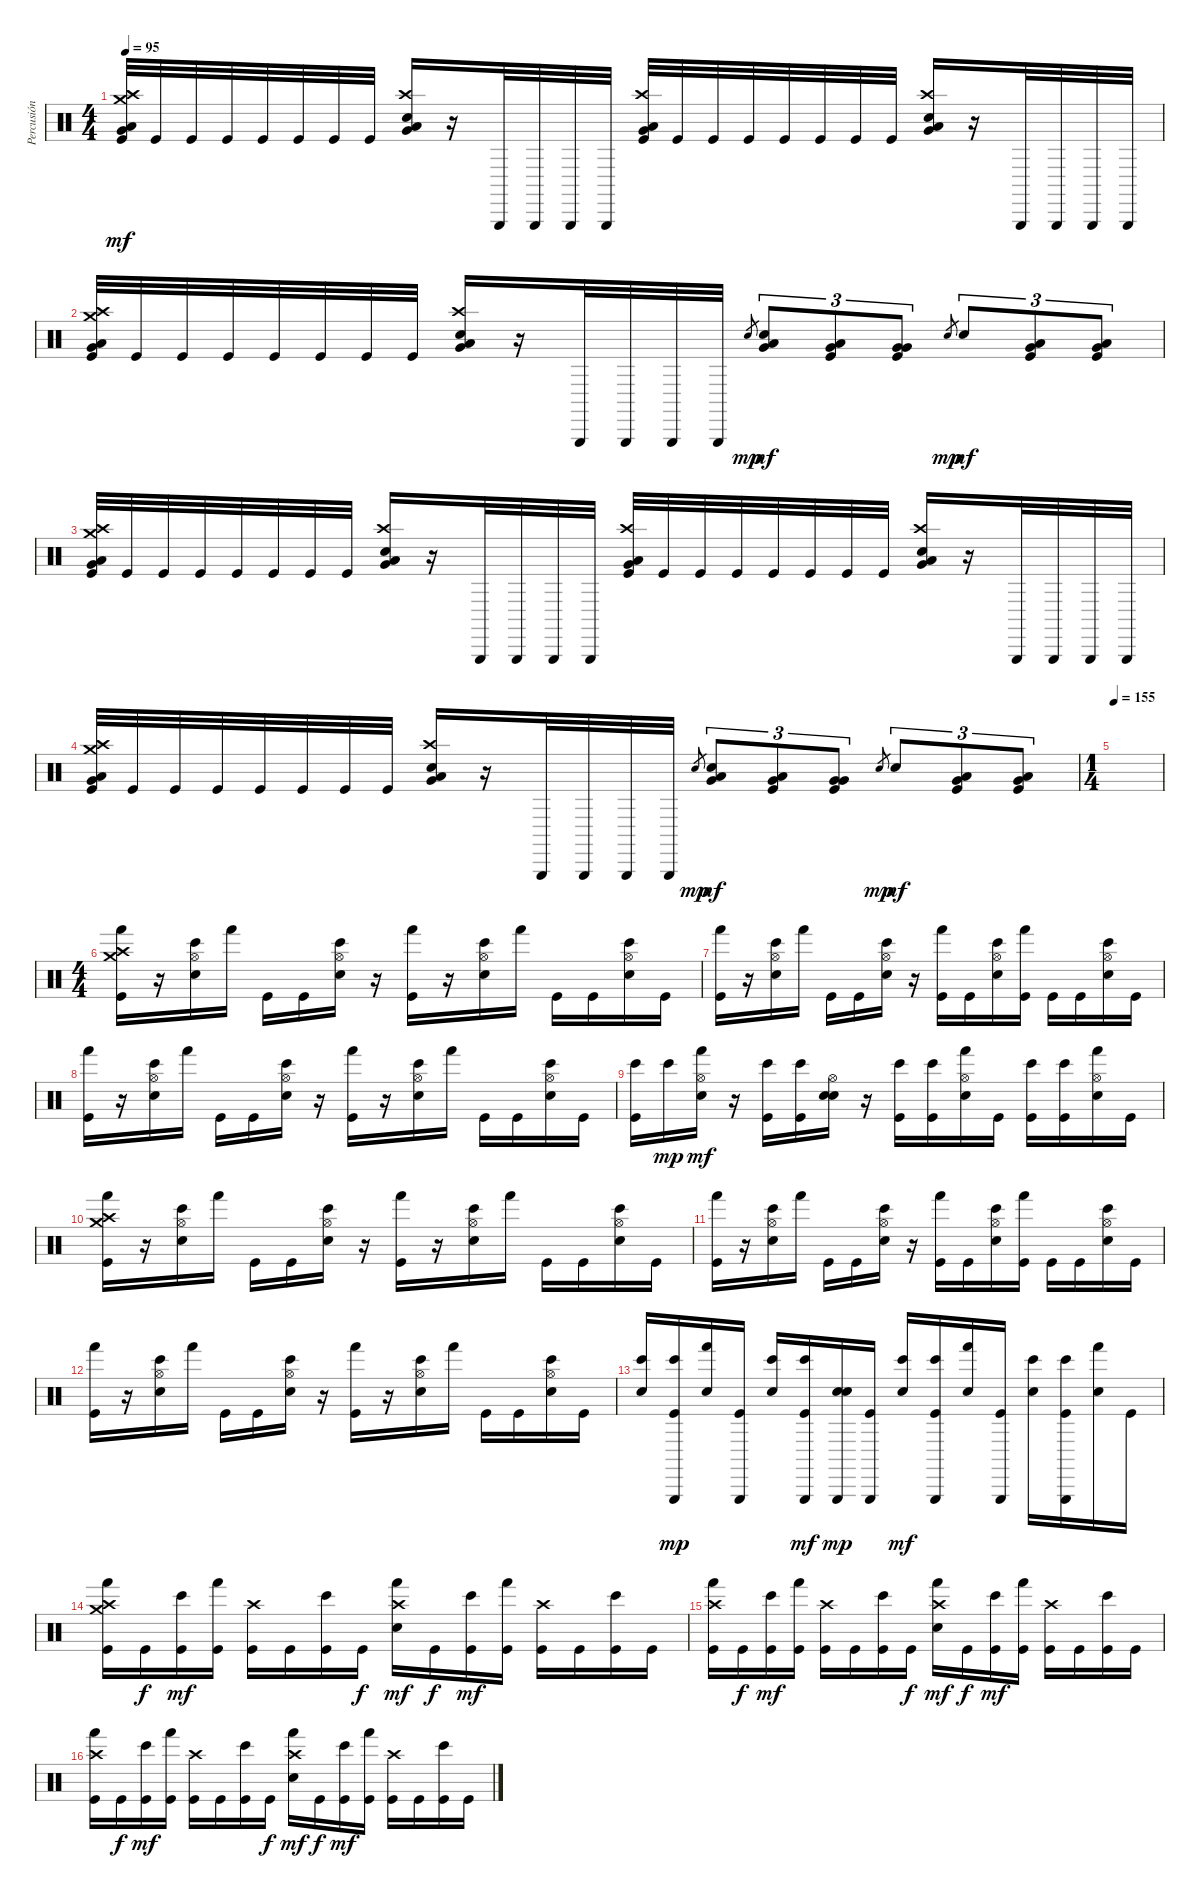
\track ("Percusión" "Percusión") {instrument percussion}
\staff {score}
\articulation defaults
\ts (4 4)
\tempo 95
\clef neutral
\ks c
("Low Floor Tom (hit)" "Very Low Tom (hit)" "Crash medium (hit)" "Crash high (hit)" "Kick (hit)").32{dy mf} "Kick (hit)".32 "Kick (hit)".32 "Kick (hit)".32 "Kick (hit)".32 "Kick (hit)".32 "Kick (hit)".32 "Kick (hit)".32 ("Low Floor Tom (hit)" "Very Low Tom (hit)" "Crash high (hit)" "Electric Snare (hit)").16 r.16 "Triangle (hit)".32 "Triangle (hit)".32 "Triangle (hit)".32 "Triangle (hit)".32 ("Low Floor Tom (hit)" "Very Low Tom (hit)" "Crash high (hit)" "Kick (hit)").32 "Kick (hit)".32 "Kick (hit)".32 "Kick (hit)".32 "Kick (hit)".32 "Kick (hit)".32 "Kick (hit)".32 "Kick (hit)".32 ("Low Floor Tom (hit)" "Very Low Tom (hit)" "Crash high (hit)" "Electric Snare (hit)").16 r.16 "Triangle (hit)".32 "Triangle (hit)".32 "Triangle (hit)".32 "Triangle (hit)".32 |
("Low Floor Tom (hit)" "Very Low Tom (hit)" "Crash medium (hit)" "Crash high (hit)" "Kick (hit)").32 "Kick (hit)".32 "Kick (hit)".32 "Kick (hit)".32 "Kick (hit)".32 "Kick (hit)".32 "Kick (hit)".32 "Kick (hit)".32 ("Low Floor Tom (hit)" "Very Low Tom (hit)" "Crash high (hit)" "Electric Snare (hit)").16 r.16 "Triangle (hit)".32 "Triangle (hit)".32 "Triangle (hit)".32 "Triangle (hit)".32 "Electric Snare (hit)".8{gr dy mp} ("Low Floor Tom (hit)" "Very Low Tom (hit)" "Electric Snare (hit)").8{tu (3 2) dy mf} ("Very Low Tom (hit)" "Low Tom (hit)" "Kick (hit)").8{tu (3 2)} ("Very Low Tom (hit)" "Very Low Tom (hit)" "Kick (hit)").8{tu (3 2)} "Electric Snare (hit)".8{gr dy mp} "Electric Snare (hit)".8{tu (3 2) dy mf} ("Low Floor Tom (hit)" "Very Low Tom (hit)" "Kick (hit)").8{tu (3 2)} ("Low Floor Tom (hit)" "Very Low Tom (hit)" "Kick (hit)").8{tu (3 2)} |
("Low Floor Tom (hit)" "Very Low Tom (hit)" "Crash medium (hit)" "Crash high (hit)" "Kick (hit)").32 "Kick (hit)".32 "Kick (hit)".32 "Kick (hit)".32 "Kick (hit)".32 "Kick (hit)".32 "Kick (hit)".32 "Kick (hit)".32 ("Low Floor Tom (hit)" "Very Low Tom (hit)" "Crash high (hit)" "Electric Snare (hit)").16 r.16 "Triangle (hit)".32 "Triangle (hit)".32 "Triangle (hit)".32 "Triangle (hit)".32 ("Low Floor Tom (hit)" "Very Low Tom (hit)" "Crash high (hit)" "Kick (hit)").32 "Kick (hit)".32 "Kick (hit)".32 "Kick (hit)".32 "Kick (hit)".32 "Kick (hit)".32 "Kick (hit)".32 "Kick (hit)".32 ("Low Floor Tom (hit)" "Very Low Tom (hit)" "Crash high (hit)" "Electric Snare (hit)").16 r.16 "Triangle (hit)".32 "Triangle (hit)".32 "Triangle (hit)".32 "Triangle (hit)".32 |
("Low Floor Tom (hit)" "Very Low Tom (hit)" "Crash medium (hit)" "Crash high (hit)" "Kick (hit)").32 "Kick (hit)".32 "Kick (hit)".32 "Kick (hit)".32 "Kick (hit)".32 "Kick (hit)".32 "Kick (hit)".32 "Kick (hit)".32 ("Low Floor Tom (hit)" "Very Low Tom (hit)" "Crash high (hit)" "Electric Snare (hit)").16 r.16 "Triangle (hit)".32 "Triangle (hit)".32 "Triangle (hit)".32 "Triangle (hit)".32 "Electric Snare (hit)".8{gr dy mp} ("Low Floor Tom (hit)" "Very Low Tom (hit)" "Electric Snare (hit)").8{tu (3 2) dy mf} ("Very Low Tom (hit)" "Low Tom (hit)" "Kick (hit)").8{tu (3 2)} ("Very Low Tom (hit)" "Very Low Tom (hit)" "Kick (hit)").8{tu (3 2)} "Electric Snare (hit)".8{gr dy mp} "Electric Snare (hit)".8{tu (3 2) dy mf} ("Low Floor Tom (hit)" "Very Low Tom (hit)" "Kick (hit)").8{tu (3 2)} ("Low Floor Tom (hit)" "Very Low Tom (hit)" "Kick (hit)").8{tu (3 2)} |
\ts (1 4)
\tempo 155
|
\ts (4 4)
("Hand (hit)" "Crash medium (hit)" "Crash high (hit)" "Kick (hit)").16 r.16 ("Bongo High (hit)" "Hi-Hat (open)" "Electric Snare (hit)").16 "Hand (hit)".16 "Kick (hit)".16 "Kick (hit)".16 ("Bongo High (hit)" "Hi-Hat (open)" "Electric Snare (hit)").16 r.16 ("Hand (hit)" "Kick (hit)").16 r.16 ("Bongo High (hit)" "Hi-Hat (open)" "Electric Snare (hit)").16 "Hand (hit)".16 "Kick (hit)".16 "Kick (hit)".16 ("Bongo High (hit)" "Hi-Hat (open)" "Electric Snare (hit)").16 "Kick (hit)".16 |
("Hand (hit)" "Kick (hit)").16 r.16 ("Bongo High (hit)" "Hi-Hat (open)" "Electric Snare (hit)").16 "Hand (hit)".16 "Kick (hit)".16 "Kick (hit)".16 ("Bongo High (hit)" "Hi-Hat (open)" "Electric Snare (hit)").16 r.16 ("Hand (hit)" "Kick (hit)").16 "Kick (hit)".16 ("Bongo High (hit)" "Hi-Hat (open)" "Electric Snare (hit)").16 ("Hand (hit)" "Kick (hit)").16 "Kick (hit)".16 "Kick (hit)".16 ("Bongo High (hit)" "Hi-Hat (open)" "Electric Snare (hit)").16 "Kick (hit)".16 |
("Hand (hit)" "Kick (hit)").16 r.16 ("Bongo High (hit)" "Hi-Hat (open)" "Electric Snare (hit)").16 "Hand (hit)".16 "Kick (hit)".16 "Kick (hit)".16 ("Bongo High (hit)" "Hi-Hat (open)" "Electric Snare (hit)").16 r.16 ("Hand (hit)" "Kick (hit)").16 r.16 ("Bongo High (hit)" "Hi-Hat (open)" "Electric Snare (hit)").16 "Hand (hit)".16 "Kick (hit)".16 "Kick (hit)".16 ("Bongo High (hit)" "Hi-Hat (open)" "Electric Snare (hit)").16 "Kick (hit)".16 |
("Bongo High (hit)" "Kick (hit)").16 "Bongo High (hit)".16{dy mp} ("Hand (hit)" "Hi-Hat (open)" "Electric Snare (hit)").16{dy mf} r.16 ("Bongo High (hit)" "Kick (hit)").16 ("Bongo High (hit)" "Kick (hit)").16 ("Snare (hit)" "Hi-Hat (open)" "Electric Snare (hit)").16 r.16 ("Bongo High (hit)" "Kick (hit)").16 ("Bongo High (hit)" "Kick (hit)").16 ("Hand (hit)" "Hi-Hat (open)" "Electric Snare (hit)").16 "Kick (hit)".16 ("Bongo High (hit)" "Kick (hit)").16 ("Bongo High (hit)" "Kick (hit)").16 ("Hand (hit)" "Hi-Hat (open)" "Electric Snare (hit)").16 "Kick (hit)".16 |
("Hand (hit)" "Crash medium (hit)" "Crash high (hit)" "Kick (hit)").16 r.16 ("Bongo High (hit)" "Hi-Hat (open)" "Electric Snare (hit)").16 "Hand (hit)".16 "Kick (hit)".16 "Kick (hit)".16 ("Bongo High (hit)" "Hi-Hat (open)" "Electric Snare (hit)").16 r.16 ("Hand (hit)" "Kick (hit)").16 r.16 ("Bongo High (hit)" "Hi-Hat (open)" "Electric Snare (hit)").16 "Hand (hit)".16 "Kick (hit)".16 "Kick (hit)".16 ("Bongo High (hit)" "Hi-Hat (open)" "Electric Snare (hit)").16 "Kick (hit)".16 |
("Hand (hit)" "Kick (hit)").16 r.16 ("Bongo High (hit)" "Hi-Hat (open)" "Electric Snare (hit)").16 "Hand (hit)".16 "Kick (hit)".16 "Kick (hit)".16 ("Bongo High (hit)" "Hi-Hat (open)" "Electric Snare (hit)").16 r.16 ("Hand (hit)" "Kick (hit)").16 "Kick (hit)".16 ("Bongo High (hit)" "Hi-Hat (open)" "Electric Snare (hit)").16 ("Hand (hit)" "Kick (hit)").16 "Kick (hit)".16 "Kick (hit)".16 ("Bongo High (hit)" "Hi-Hat (open)" "Electric Snare (hit)").16 "Kick (hit)".16 |
("Hand (hit)" "Kick (hit)").16 r.16 ("Bongo High (hit)" "Hi-Hat (open)" "Electric Snare (hit)").16 "Hand (hit)".16 "Kick (hit)".16 "Kick (hit)".16 ("Bongo High (hit)" "Hi-Hat (open)" "Electric Snare (hit)").16 r.16 ("Hand (hit)" "Kick (hit)").16 r.16 ("Bongo High (hit)" "Hi-Hat (open)" "Electric Snare (hit)").16 "Hand (hit)".16 "Kick (hit)".16 "Kick (hit)".16 ("Bongo High (hit)" "Hi-Hat (open)" "Electric Snare (hit)").16 "Kick (hit)".16 |
("Bongo High (hit)" "Electric Snare (hit)").16 ("Bongo High (hit)" "Triangle (hit)" "Kick (hit)").16{dy mp} ("Hand (hit)" "Electric Snare (hit)").16 ("Triangle (hit)" "Kick (hit)").16 ("Bongo High (hit)" "Electric Snare (hit)").16 ("Bongo High (hit)" "Triangle (hit)" "Kick (hit)").16{dy mf} ("Snare (hit)" "Triangle (hit)" "Electric Snare (hit)").16{dy mp} ("Triangle (hit)" "Kick (hit)").16 ("Bongo High (hit)" "Electric Snare (hit)").16{dy mf} ("Bongo High (hit)" "Triangle (hit)" "Kick (hit)").16 ("Hand (hit)" "Electric Snare (hit)").16 ("Triangle (hit)" "Kick (hit)").16 ("Bongo High (hit)" "Electric Snare (hit)").16 ("Bongo High (hit)" "Triangle (hit)" "Kick (hit)").16 ("Hand (hit)" "Electric Snare (hit)").16 "Kick (hit)".16 |
("Hand (hit)" "Crash medium (hit)" "Crash high (hit)" "Kick (hit)").16 "Kick (hit)".16{dy f} ("Bongo High (hit)" "Kick (hit)").16{dy mf} ("Hand (hit)" "Kick (hit)").16 ("Crash high (hit)" "Kick (hit)").16 "Kick (hit)".16 ("Bongo High (hit)" "Kick (hit)").16 "Kick (hit)".16{dy f} ("Hand (hit)" "Crash high (hit)" "Electric Snare (hit)").16{dy mf} "Kick (hit)".16{dy f} ("Bongo High (hit)" "Kick (hit)").16{dy mf} ("Hand (hit)" "Kick (hit)").16 ("Crash high (hit)" "Kick (hit)").16 "Kick (hit)".16 ("Bongo High (hit)" "Kick (hit)").16 "Kick (hit)".16 |
("Hand (hit)" "Crash high (hit)" "Kick (hit)").16 "Kick (hit)".16{dy f} ("Bongo High (hit)" "Kick (hit)").16{dy mf} ("Hand (hit)" "Kick (hit)").16 ("Crash high (hit)" "Kick (hit)").16 "Kick (hit)".16 ("Bongo High (hit)" "Kick (hit)").16 "Kick (hit)".16{dy f} ("Hand (hit)" "Crash high (hit)" "Electric Snare (hit)").16{dy mf} "Kick (hit)".16{dy f} ("Bongo High (hit)" "Kick (hit)").16{dy mf} ("Hand (hit)" "Kick (hit)").16 ("Crash high (hit)" "Kick (hit)").16 "Kick (hit)".16 ("Bongo High (hit)" "Kick (hit)").16 "Kick (hit)".16 |
("Hand (hit)" "Crash high (hit)" "Kick (hit)").16 "Kick (hit)".16{dy f} ("Bongo High (hit)" "Kick (hit)").16{dy mf} ("Hand (hit)" "Kick (hit)").16 ("Crash high (hit)" "Kick (hit)").16 "Kick (hit)".16 ("Bongo High (hit)" "Kick (hit)").16 "Kick (hit)".16{dy f} ("Hand (hit)" "Crash high (hit)" "Electric Snare (hit)").16{dy mf} "Kick (hit)".16{dy f} ("Bongo High (hit)" "Kick (hit)").16{dy mf} ("Hand (hit)" "Kick (hit)").16 ("Crash high (hit)" "Kick (hit)").16 "Kick (hit)".16 ("Bongo High (hit)" "Kick (hit)").16 "Kick (hit)".16
